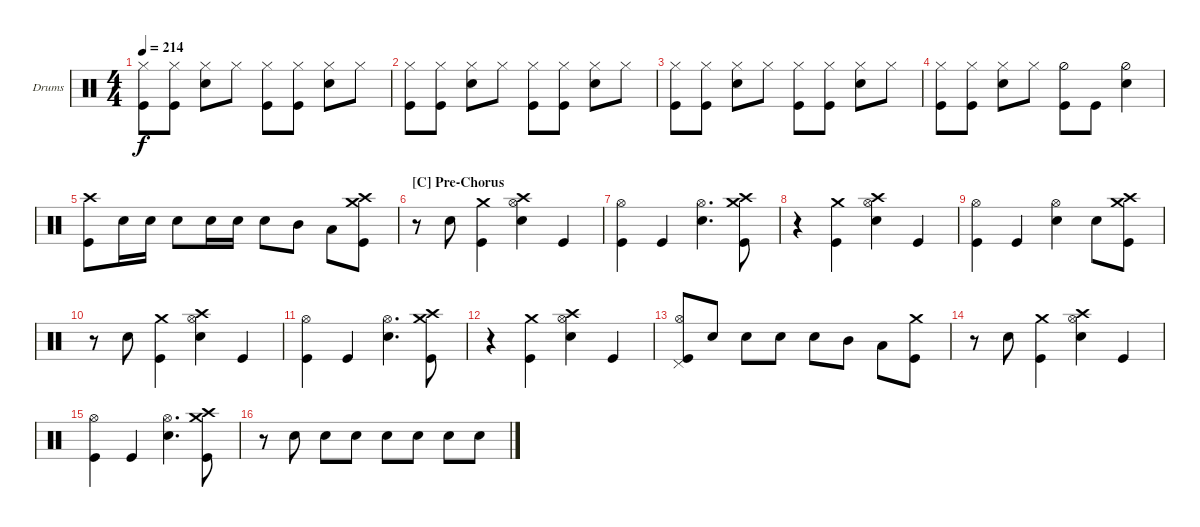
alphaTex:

\defaultSystemsLayout 4
\bracketExtendMode groupsimilarinstruments
\firstSystemTrackNameOrientation horizontal
\otherSystemsTrackNameOrientation horizontal
\track ("Brandon" "Drums") {instrument percussion}
\staff {score}
\articulation defaults
\ts (4 4)
\tempo 214
\clef neutral
\ks c
("Hi-Hat (closed)" "Kick (hit)").8{dy f} ("Hi-Hat (closed)" "Kick (hit)").8 ("Hi-Hat (closed)" "Snare (hit) 2").8 "Hi-Hat (closed)".8 ("Hi-Hat (closed)" "Kick (hit)").8 ("Hi-Hat (closed)" "Kick (hit)").8 ("Hi-Hat (closed)" "Snare (hit) 2").8 "Hi-Hat (closed)".8 |
("Hi-Hat (closed)" "Kick (hit)").8 ("Hi-Hat (closed)" "Kick (hit)").8 ("Hi-Hat (closed)" "Snare (hit) 2").8 "Hi-Hat (closed)".8 ("Hi-Hat (closed)" "Kick (hit)").8 ("Hi-Hat (closed)" "Kick (hit)").8 ("Hi-Hat (closed)" "Snare (hit) 2").8 "Hi-Hat (closed)".8 |
("Hi-Hat (closed)" "Kick (hit)").8 ("Hi-Hat (closed)" "Kick (hit)").8 ("Hi-Hat (closed)" "Snare (hit) 2").8 "Hi-Hat (closed)".8 ("Hi-Hat (closed)" "Kick (hit)").8 ("Hi-Hat (closed)" "Kick (hit)").8 ("Hi-Hat (closed)" "Snare (hit) 2").8 "Hi-Hat (closed)".8 |
("Hi-Hat (closed)" "Kick (hit)").8 ("Hi-Hat (closed)" "Kick (hit)").8 ("Hi-Hat (closed)" "Snare (hit) 2").8 "Hi-Hat (closed)".8 ("Kick (hit)" "Hi-Hat (half)").8 "Kick (hit)".8 ("Snare (hit) 2" "Hi-Hat (half)").4 |
\scale
0.295462 ("Kick (hit)" "Crash high (hit)").8 "Snare (hit) 2".16 "Snare (hit) 2".16 "Snare (hit) 2".8 "Snare (hit) 2".16 "Snare (hit) 2".16 "Snare (hit) 2".8 "Mid Tom (hit)".8 "Low Tom (hit)".8 ("Crash high (hit)" "Crash medium (hit)" "Kick (hit)").8 |
\section ("C" "Pre-Chorus")
\scale
0.244942 r.8 "Snare (hit) 2".8 ("Kick (hit)" "Crash medium (hit)").4 ("Snare (hit) 2" "Crash high (hit)" "Hi-Hat (open)").4 "Kick (hit)".4 |
\scale
0.235975 ("Kick (hit)" "Hi-Hat (open)").4 "Kick (hit)".4 ("Snare (hit) 2" "Hi-Hat (open)").4{d} ("Crash high (hit)" "Crash medium (hit)" "Kick (hit)").8 |
\scale
0.189802 r.4 ("Kick (hit)" "Crash medium (hit)").4 ("Snare (hit) 2" "Crash high (hit)" "Hi-Hat (open)").4 "Kick (hit)".4 |
("Kick (hit)" "Hi-Hat (open)").4 "Kick (hit)".4 ("Snare (hit) 2" "Hi-Hat (open)").4 "Snare (hit) 2".8 ("Crash high (hit)" "Crash medium (hit)" "Kick (hit)").8 |
r.8 "Snare (hit) 2".8 ("Kick (hit)" "Crash medium (hit)").4 ("Snare (hit) 2" "Crash high (hit)" "Hi-Hat (open)").4 "Kick (hit)".4 |
("Kick (hit)" "Hi-Hat (open)").4 "Kick (hit)".4 ("Snare (hit) 2" "Hi-Hat (open)").4{d} ("Crash high (hit)" "Crash medium (hit)" "Kick (hit)").8 |
r.4 ("Kick (hit)" "Crash medium (hit)").4 ("Snare (hit) 2" "Crash high (hit)" "Hi-Hat (open)").4 "Kick (hit)".4 |
("Kick (hit)" "Hi-Hat (open)" "Pedal Hi-Hat (hit)").8 "Snare (hit) 2".8 "Snare (hit) 2".8 "Snare (hit) 2".8 "Snare (hit) 2".8 "Mid Tom (hit)".8 "Low Tom (hit)".8 ("Kick (hit)" "Crash medium (hit)").8 |
r.8 "Snare (hit) 2".8 ("Kick (hit)" "Crash medium (hit)").4 ("Snare (hit) 2" "Crash high (hit)" "Hi-Hat (open)").4 "Kick (hit)".4 |
("Kick (hit)" "Hi-Hat (open)").4 "Kick (hit)".4 ("Snare (hit) 2" "Hi-Hat (open)").4{d} ("Crash high (hit)" "Crash medium (hit)" "Kick (hit)").8 |
r.8 "Snare (hit) 2".8 "Snare (hit) 2".8 "Snare (hit) 2".8 "Snare (hit) 2".8 "Snare (hit) 2".8 "Snare (hit) 2".8 "Snare (hit) 2".8
